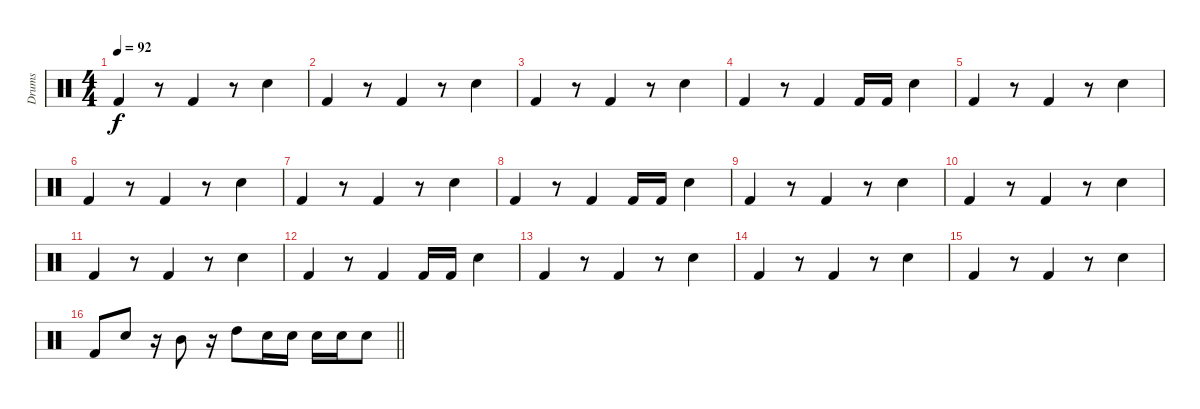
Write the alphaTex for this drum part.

\track ("Drums" "Drums") {instrument percussion}
\staff {score}
\articulation defaults
\ts (4 4)
\tempo 92
\clef neutral
\ks c "Kick (hit) 2".4{dy f}
r.8 "Kick (hit) 2".4 r.8 "Snare (hit) 2".4 |
"Kick (hit) 2".4 r.8 "Kick (hit) 2".4 r.8 "Snare (hit) 2".4 |
"Kick (hit) 2".4 r.8 "Kick (hit) 2".4 r.8 "Snare (hit) 2".4 |
"Kick (hit) 2".4 r.8 "Kick (hit) 2".4 "Kick (hit) 2".16 "Kick (hit) 2".16 "Snare (hit) 2".4 |
"Kick (hit) 2".4 r.8 "Kick (hit) 2".4 r.8 "Snare (hit) 2".4 |
"Kick (hit) 2".4 r.8 "Kick (hit) 2".4 r.8 "Snare (hit) 2".4 |
"Kick (hit) 2".4 r.8 "Kick (hit) 2".4 r.8 "Snare (hit) 2".4 |
"Kick (hit) 2".4 r.8 "Kick (hit) 2".4 "Kick (hit) 2".16 "Kick (hit) 2".16 "Snare (hit) 2".4 |
"Kick (hit) 2".4 r.8 "Kick (hit) 2".4 r.8 "Snare (hit) 2".4 |
"Kick (hit) 2".4 r.8 "Kick (hit) 2".4 r.8 "Snare (hit) 2".4 |
"Kick (hit) 2".4 r.8 "Kick (hit) 2".4 r.8 "Snare (hit) 2".4 |
"Kick (hit) 2".4 r.8 "Kick (hit) 2".4 "Kick (hit) 2".16 "Kick (hit) 2".16 "Snare (hit) 2".4 |
"Kick (hit) 2".4 r.8 "Kick (hit) 2".4 r.8 "Snare (hit) 2".4 |
"Kick (hit) 2".4 r.8 "Kick (hit) 2".4 r.8 "Snare (hit) 2".4 |
"Kick (hit) 2".4 r.8 "Kick (hit) 2".4 r.8 "Snare (hit) 2".4 |
\barLineRight lightlight "Kick (hit) 2".8 "Snare (hit) 2".8
r.16 "Mid Tom (hit)".8 r.16 "High Tom (hit)".8 "Snare (hit) 2".16 "Snare (hit) 2".16 "Snare (hit) 2".16 "Snare (hit) 2".16 "Snare (hit) 2".8
